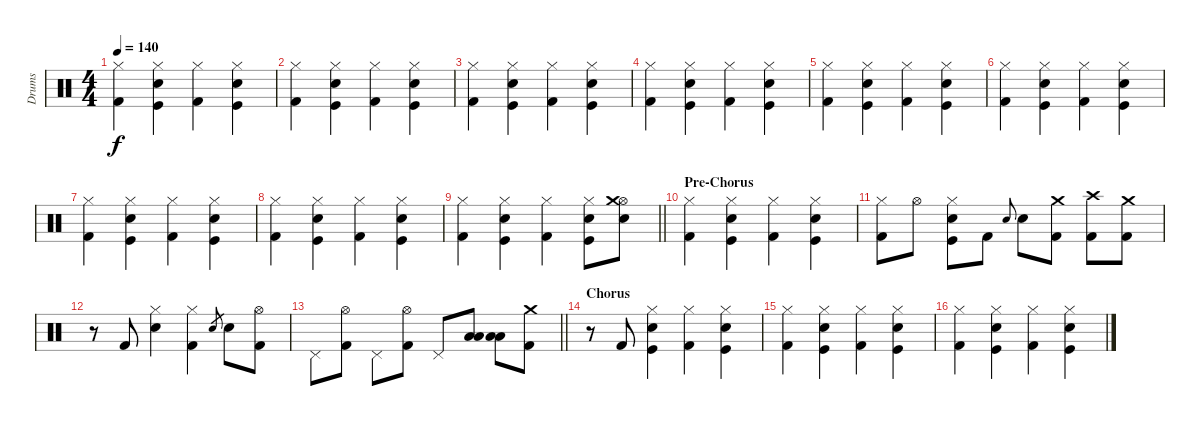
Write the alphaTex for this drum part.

\track ("Drums" "Drums") {instrument percussion}
\staff {score}
\articulation defaults
\ts (4 4)
\tempo 140
\clef neutral
\ks c
("Hi-Hat (closed)" "Kick (hit) 2").4{dy f} ("Hi-Hat (closed)" "Electric Snare (hit)" "Kick (hit)").4 ("Hi-Hat (closed)" "Kick (hit) 2").4 ("Hi-Hat (closed)" "Electric Snare (hit)" "Kick (hit)").4 |
("Hi-Hat (closed)" "Kick (hit) 2").4 ("Hi-Hat (closed)" "Electric Snare (hit)" "Kick (hit)").4 ("Hi-Hat (closed)" "Kick (hit) 2").4 ("Hi-Hat (closed)" "Electric Snare (hit)" "Kick (hit)").4 |
("Hi-Hat (closed)" "Kick (hit) 2").4 ("Hi-Hat (closed)" "Electric Snare (hit)" "Kick (hit)").4 ("Hi-Hat (closed)" "Kick (hit) 2").4 ("Hi-Hat (closed)" "Electric Snare (hit)" "Kick (hit)").4 |
("Hi-Hat (closed)" "Kick (hit) 2").4 ("Hi-Hat (closed)" "Electric Snare (hit)" "Kick (hit)").4 ("Hi-Hat (closed)" "Kick (hit) 2").4 ("Hi-Hat (closed)" "Electric Snare (hit)" "Kick (hit)").4 |
("Hi-Hat (closed)" "Kick (hit) 2").4 ("Hi-Hat (closed)" "Electric Snare (hit)" "Kick (hit)").4 ("Hi-Hat (closed)" "Kick (hit) 2").4 ("Hi-Hat (closed)" "Electric Snare (hit)" "Kick (hit)").4 |
("Hi-Hat (closed)" "Kick (hit) 2").4 ("Hi-Hat (closed)" "Electric Snare (hit)" "Kick (hit)").4 ("Hi-Hat (closed)" "Kick (hit) 2").4 ("Hi-Hat (closed)" "Electric Snare (hit)" "Kick (hit)").4 |
("Hi-Hat (closed)" "Kick (hit) 2").4 ("Hi-Hat (closed)" "Electric Snare (hit)" "Kick (hit)").4 ("Hi-Hat (closed)" "Kick (hit) 2").4 ("Hi-Hat (closed)" "Electric Snare (hit)" "Kick (hit)").4 |
("Hi-Hat (closed)" "Kick (hit) 2").4 ("Hi-Hat (closed)" "Electric Snare (hit)" "Kick (hit)").4 ("Hi-Hat (closed)" "Kick (hit) 2").4 ("Hi-Hat (closed)" "Electric Snare (hit)" "Kick (hit)").4 |
\barLineRight lightlight
("Hi-Hat (closed)" "Kick (hit) 2").4 ("Hi-Hat (closed)" "Electric Snare (hit)" "Kick (hit)").4 ("Hi-Hat (closed)" "Kick (hit) 2").4 ("Hi-Hat (closed)" "Electric Snare (hit)" "Kick (hit)").8 ("Hi-Hat (open)" "Electric Snare (hit)" "Crash medium (hit)").8 |
\section ("" "Pre-Chorus")
("Hi-Hat (closed)" "Kick (hit) 2").4 ("Hi-Hat (closed)" "Electric Snare (hit)" "Kick (hit)").4 ("Hi-Hat (closed)" "Kick (hit) 2").4 ("Hi-Hat (closed)" "Electric Snare (hit)" "Kick (hit)").4 |
("Hi-Hat (closed)" "Kick (hit) 2").8 "Hi-Hat (open)".8 ("Hi-Hat (closed)" "Electric Snare (hit)" "Kick (hit)").8 "Kick (hit) 2".8 "Electric Snare (hit)".8{gr onbeat} "Electric Snare (hit)".8 ("Crash medium (hit)" "Kick (hit) 2").8 ("Crash high (hit)" "Kick (hit) 2").8 ("Crash medium (hit)" "Kick (hit) 2").8 |
r.8 "Kick (hit) 2".8 ("Hi-Hat (closed)" "Electric Snare (hit)").4 ("Hi-Hat (closed)" "Kick (hit) 2").4 "Electric Snare (hit)".8{gr} "Electric Snare (hit)".8 ("Hi-Hat (open)" "Kick (hit) 2").8 |
\barLineRight lightlight "Pedal Hi-Hat (hit)".8
("Hi-Hat (open)" "Kick (hit) 2").8 "Pedal Hi-Hat (hit)".8 ("Hi-Hat (open)" "Kick (hit) 2").8 "Pedal Hi-Hat (hit)".8 ("Low Floor Tom (hit)" "Low Tom (hit)").8 ("Low Floor Tom (hit)" "Low Tom (hit)").8 ("Crash medium (hit)" "Kick (hit) 2").8 |
\section ("" "Chorus")
r.8 "Kick (hit) 2".8 ("Hi-Hat (closed)" "Electric Snare (hit)" "Kick (hit)").4 ("Hi-Hat (closed)" "Kick (hit) 2").4 ("Hi-Hat (closed)" "Electric Snare (hit)" "Kick (hit)").4 |
("Hi-Hat (closed)" "Kick (hit) 2").4 ("Hi-Hat (closed)" "Electric Snare (hit)" "Kick (hit)").4 ("Hi-Hat (closed)" "Kick (hit) 2").4 ("Hi-Hat (closed)" "Electric Snare (hit)" "Kick (hit)").4 |
("Hi-Hat (closed)" "Kick (hit) 2").4 ("Hi-Hat (closed)" "Electric Snare (hit)" "Kick (hit)").4 ("Hi-Hat (closed)" "Kick (hit) 2").4 ("Hi-Hat (closed)" "Electric Snare (hit)" "Kick (hit)").4
